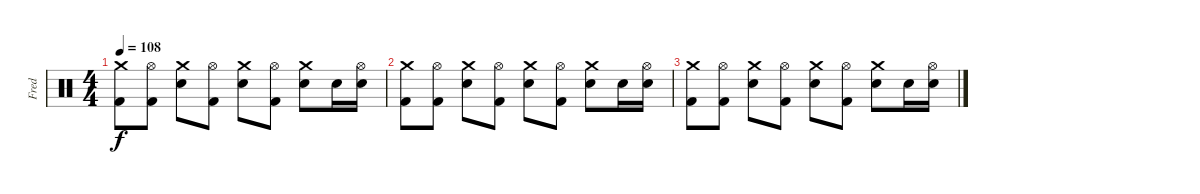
\track ("Fred" "Fred") {instrument percussion}
\staff {score}
\articulation defaults
\ts (4 4)
\tempo 108
\clef neutral
\ks c
("Crash medium (hit)" "Kick (hit) 2").8{dy f} ("Hi-Hat (open)" "Kick (hit) 2").8 ("Crash medium (hit)" "Snare (hit) 2").8 ("Hi-Hat (open)" "Kick (hit) 2").8 ("Crash medium (hit)" "Snare (hit) 2").8 ("Hi-Hat (open)" "Kick (hit) 2").8 ("Crash medium (hit)" "Snare (hit) 2").8 "Snare (hit) 2".16 ("Hi-Hat (open)" "Snare (hit) 2").16 |
("Crash medium (hit)" "Kick (hit) 2").8 ("Hi-Hat (open)" "Kick (hit) 2").8 ("Crash medium (hit)" "Snare (hit) 2").8 ("Hi-Hat (open)" "Kick (hit) 2").8 ("Crash medium (hit)" "Snare (hit) 2").8 ("Hi-Hat (open)" "Kick (hit) 2").8 ("Crash medium (hit)" "Snare (hit) 2").8 "Snare (hit) 2".16 ("Hi-Hat (open)" "Snare (hit) 2").16 |
("Crash medium (hit)" "Kick (hit) 2").8 ("Hi-Hat (open)" "Kick (hit) 2").8 ("Crash medium (hit)" "Snare (hit) 2").8 ("Hi-Hat (open)" "Kick (hit) 2").8 ("Crash medium (hit)" "Snare (hit) 2").8 ("Hi-Hat (open)" "Kick (hit) 2").8 ("Crash medium (hit)" "Snare (hit) 2").8 "Snare (hit) 2".16 ("Hi-Hat (open)" "Snare (hit) 2").16
